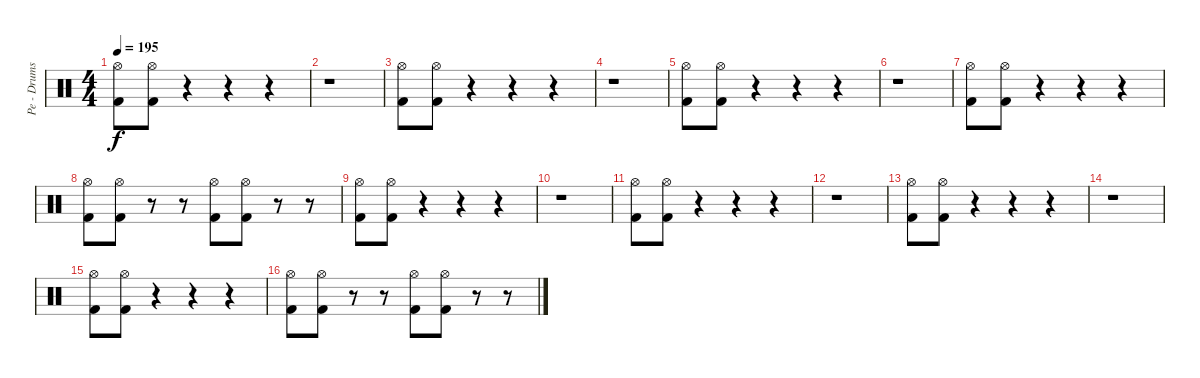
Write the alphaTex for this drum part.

\track ("Pe - Drums" "Pe - Drums") {instrument percussion}
\staff {score}
\articulation defaults
\ts (4 4)
\tempo 195
\clef neutral
\ks c
("Hi-Hat (open)" "Kick (hit) 2").8{dy f} ("Hi-Hat (open)" "Kick (hit) 2").8 r.4{volume 0} r.4 r.4 |
r.1 |
("Hi-Hat (open)" "Kick (hit) 2").8{volume 13} ("Hi-Hat (open)" "Kick (hit) 2").8 r.4{volume 0} r.4 r.4 |
r.1 |
("Hi-Hat (open)" "Kick (hit) 2").8{volume 13} ("Hi-Hat (open)" "Kick (hit) 2").8 r.4{volume 0} r.4 r.4 |
r.1 |
("Hi-Hat (open)" "Kick (hit) 2").8{volume 13} ("Hi-Hat (open)" "Kick (hit) 2").8 r.4{volume 0} r.4 r.4 |
("Hi-Hat (open)" "Kick (hit) 2").8{volume 13} ("Hi-Hat (open)" "Kick (hit) 2").8 r.8{volume 0} r.8 ("Hi-Hat (open)" "Kick (hit) 2").8{volume 13} ("Hi-Hat (open)" "Kick (hit) 2").8 r.8{volume 0} r.8 |
("Hi-Hat (open)" "Kick (hit) 2").8{volume 13} ("Hi-Hat (open)" "Kick (hit) 2").8 r.4{volume 0} r.4 r.4 |
r.1 |
("Hi-Hat (open)" "Kick (hit) 2").8{volume 13} ("Hi-Hat (open)" "Kick (hit) 2").8 r.4{volume 0} r.4 r.4 |
r.1 |
("Hi-Hat (open)" "Kick (hit) 2").8{volume 13} ("Hi-Hat (open)" "Kick (hit) 2").8 r.4{volume 0} r.4 r.4 |
r.1 |
("Hi-Hat (open)" "Kick (hit) 2").8{volume 13} ("Hi-Hat (open)" "Kick (hit) 2").8 r.4{volume 0} r.4 r.4 |
("Hi-Hat (open)" "Kick (hit) 2").8{volume 13} ("Hi-Hat (open)" "Kick (hit) 2").8 r.8{volume 0} r.8 ("Hi-Hat (open)" "Kick (hit) 2").8{volume 13} ("Hi-Hat (open)" "Kick (hit) 2").8 r.8{volume 0} r.8
